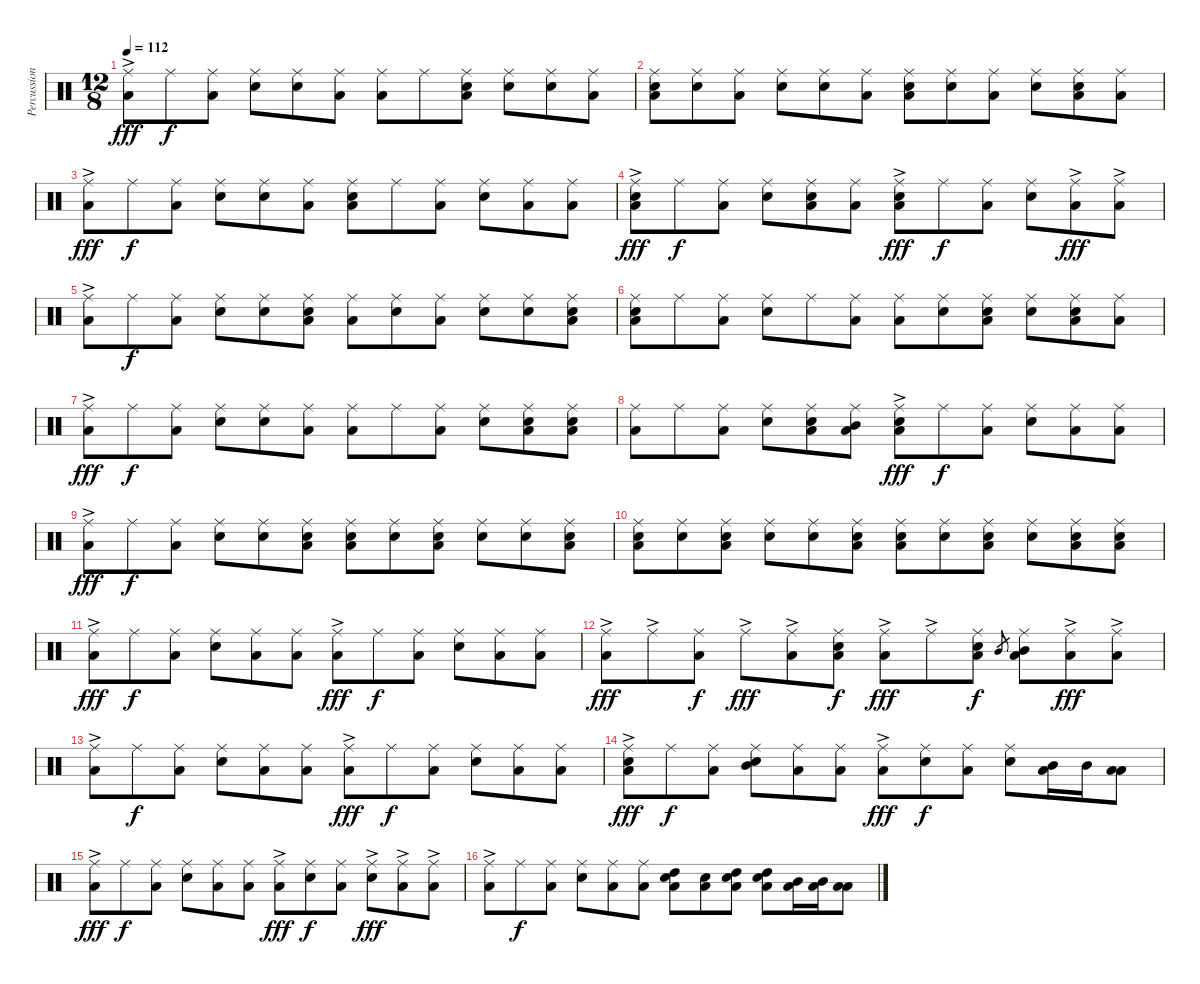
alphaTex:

\track ("Percussion" "Percussion") {instrument percussion}
\staff {score}
\articulation defaults
\ts (12 8)
\tempo 112
\clef neutral
\ks c
("Ride (middle)"{ac} "Low Floor Tom (hit)").8{dy fff} "Ride (middle)".8{dy f} ("Ride (middle)" "Low Floor Tom (hit)").8 ("Ride (middle)" "Snare (hit) 2").8 ("Ride (middle)" "Snare (hit) 2").8 ("Ride (middle)" "Low Floor Tom (hit)").8 ("Ride (middle)" "Low Floor Tom (hit)").8 "Ride (middle)".8 ("Ride (middle)" "Snare (hit) 2" "Low Floor Tom (hit)").8 ("Ride (middle)" "Snare (hit) 2").8 ("Ride (middle)" "Snare (hit) 2").8 ("Ride (middle)" "Low Floor Tom (hit)").8 |
("Ride (middle)" "Snare (hit) 2" "Low Floor Tom (hit)").8 ("Ride (middle)" "Snare (hit) 2").8 ("Ride (middle)" "Low Floor Tom (hit)").8 ("Ride (middle)" "Snare (hit) 2").8 ("Ride (middle)" "Snare (hit) 2").8 ("Ride (middle)" "Low Floor Tom (hit)").8 ("Ride (middle)" "Snare (hit) 2" "Low Floor Tom (hit)").8 ("Ride (middle)" "Snare (hit) 2").8 ("Ride (middle)" "Low Floor Tom (hit)").8 ("Ride (middle)" "Snare (hit) 2").8 ("Ride (middle)" "Snare (hit) 2" "Low Floor Tom (hit)").8 ("Ride (middle)" "Low Floor Tom (hit)").8 |
("Ride (middle)"{ac} "Low Floor Tom (hit)").8{dy fff} "Ride (middle)".8{dy f} ("Ride (middle)" "Low Floor Tom (hit)").8 ("Ride (middle)" "Snare (hit) 2").8 ("Ride (middle)" "Snare (hit) 2").8 ("Ride (middle)" "Low Floor Tom (hit)").8 ("Ride (middle)" "Snare (hit) 2" "Low Floor Tom (hit)").8 "Ride (middle)".8 ("Ride (middle)" "Low Floor Tom (hit)").8 ("Ride (middle)" "Snare (hit) 2").8 ("Ride (middle)" "Low Floor Tom (hit)").8 ("Ride (middle)" "Low Floor Tom (hit)").8 |
("Ride (middle)"{ac} "Snare (hit) 2" "Low Floor Tom (hit)").8{dy fff} "Ride (middle)".8{dy f} ("Ride (middle)" "Low Floor Tom (hit)").8 ("Ride (middle)" "Snare (hit) 2").8 ("Ride (middle)" "Snare (hit) 2" "Low Floor Tom (hit)").8 ("Ride (middle)" "Low Floor Tom (hit)").8 ("Ride (middle)"{ac} "Snare (hit) 2" "Low Floor Tom (hit)").8{dy fff} "Ride (middle)".8{dy f} ("Ride (middle)" "Low Floor Tom (hit)").8 ("Ride (middle)" "Snare (hit) 2").8 ("Ride (middle)"{ac} "Low Floor Tom (hit)").8{dy fff} ("Ride (middle)"{ac} "Low Floor Tom (hit)").8 |
("Ride (middle)"{ac} "Low Floor Tom (hit)").8 "Ride (middle)".8{dy f} ("Ride (middle)" "Low Floor Tom (hit)").8 ("Ride (middle)" "Snare (hit) 2").8 ("Ride (middle)" "Snare (hit) 2").8 ("Ride (middle)" "Snare (hit) 2" "Low Floor Tom (hit)").8 ("Ride (middle)" "Low Floor Tom (hit)").8 ("Ride (middle)" "Snare (hit) 2").8 ("Ride (middle)" "Low Floor Tom (hit)").8 ("Ride (middle)" "Snare (hit) 2").8 ("Ride (middle)" "Snare (hit) 2").8 ("Ride (middle)" "Snare (hit) 2" "Low Floor Tom (hit)").8 |
("Ride (middle)" "Snare (hit) 2" "Low Floor Tom (hit)").8 "Ride (middle)".8 ("Ride (middle)" "Low Floor Tom (hit)").8 ("Ride (middle)" "Snare (hit) 2").8 "Ride (middle)".8 ("Ride (middle)" "Low Floor Tom (hit)").8 ("Ride (middle)" "Low Floor Tom (hit)").8 ("Ride (middle)" "Snare (hit) 2").8 ("Ride (middle)" "Snare (hit) 2" "Low Floor Tom (hit)").8 ("Ride (middle)" "Snare (hit) 2").8 ("Ride (middle)" "Snare (hit) 2" "Low Floor Tom (hit)").8 ("Ride (middle)" "Low Floor Tom (hit)").8 |
("Ride (middle)"{ac} "Low Floor Tom (hit)").8{dy fff} "Ride (middle)".8{dy f} ("Ride (middle)" "Low Floor Tom (hit)").8 ("Ride (middle)" "Snare (hit) 2").8 ("Ride (middle)" "Snare (hit) 2").8 ("Ride (middle)" "Low Floor Tom (hit)").8 ("Ride (middle)" "Low Floor Tom (hit)").8 "Ride (middle)".8 ("Ride (middle)" "Low Floor Tom (hit)").8 ("Ride (middle)" "Snare (hit) 2").8 ("Ride (middle)" "Snare (hit) 2" "Low Floor Tom (hit)").8 ("Ride (middle)" "Snare (hit) 2" "Low Floor Tom (hit)").8 |
("Ride (middle)" "Low Floor Tom (hit)").8 "Ride (middle)".8 ("Ride (middle)" "Low Floor Tom (hit)").8 ("Ride (middle)" "Snare (hit) 2").8 ("Ride (middle)" "Snare (hit) 2" "Low Floor Tom (hit)").8 ("Ride (middle)" "Mid Tom (hit)" "Low Floor Tom (hit)").8 ("Ride (middle)"{ac} "Snare (hit) 2" "Low Floor Tom (hit)").8{dy fff} "Ride (middle)".8{dy f} ("Ride (middle)" "Low Floor Tom (hit)").8 ("Ride (middle)" "Snare (hit) 2").8 ("Ride (middle)" "Low Floor Tom (hit)").8 ("Ride (middle)" "Low Floor Tom (hit)").8 |
("Ride (middle)"{ac} "Low Floor Tom (hit)").8{dy fff} "Ride (middle)".8{dy f} ("Ride (middle)" "Low Floor Tom (hit)").8 ("Ride (middle)" "Snare (hit) 2").8 ("Ride (middle)" "Snare (hit) 2").8 ("Ride (middle)" "Snare (hit) 2" "Low Floor Tom (hit)").8 ("Ride (middle)" "Snare (hit) 2" "Low Floor Tom (hit)").8 ("Ride (middle)" "Snare (hit) 2").8 ("Ride (middle)" "Snare (hit) 2" "Low Floor Tom (hit)").8 ("Ride (middle)" "Snare (hit) 2").8 ("Ride (middle)" "Snare (hit) 2").8 ("Ride (middle)" "Snare (hit) 2" "Low Floor Tom (hit)").8 |
("Ride (middle)" "Snare (hit) 2" "Low Floor Tom (hit)").8 ("Ride (middle)" "Snare (hit) 2").8 ("Ride (middle)" "Snare (hit) 2" "Low Floor Tom (hit)").8 ("Ride (middle)" "Snare (hit) 2").8 ("Ride (middle)" "Snare (hit) 2").8 ("Ride (middle)" "Snare (hit) 2" "Low Floor Tom (hit)").8 ("Ride (middle)" "Snare (hit) 2" "Low Floor Tom (hit)").8 ("Ride (middle)" "Snare (hit) 2").8 ("Ride (middle)" "Snare (hit) 2" "Low Floor Tom (hit)").8 ("Ride (middle)" "Snare (hit) 2").8 ("Ride (middle)" "Snare (hit) 2" "Low Floor Tom (hit)").8 ("Ride (middle)" "Snare (hit) 2" "Low Floor Tom (hit)").8 |
("Ride (middle)"{ac} "Low Floor Tom (hit)").8{dy fff} "Ride (middle)".8{dy f} ("Ride (middle)" "Low Floor Tom (hit)").8 ("Ride (middle)" "Snare (hit) 2").8 ("Ride (middle)" "Low Floor Tom (hit)").8 ("Ride (middle)" "Low Floor Tom (hit)").8 ("Ride (middle)"{ac} "Low Floor Tom (hit)").8{dy fff} "Ride (middle)".8{dy f} ("Ride (middle)" "Low Floor Tom (hit)").8 ("Ride (middle)" "Snare (hit) 2").8 ("Ride (middle)" "Low Floor Tom (hit)").8 ("Ride (middle)" "Low Floor Tom (hit)").8 |
("Ride (middle)"{ac} "Low Floor Tom (hit)").8{dy fff} "Ride (middle)"{ac}.8 ("Ride (middle)" "Low Floor Tom (hit)").8{dy f} "Ride (middle)"{ac}.8{dy fff} ("Ride (middle)"{ac} "Low Floor Tom (hit)").8 ("Ride (middle)" "Snare (hit) 2" "Low Floor Tom (hit)").8{dy f} ("Ride (middle)"{ac} "Low Floor Tom (hit)").8{dy fff} "Ride (middle)"{ac}.8 ("Ride (middle)" "Snare (hit) 2" "Low Floor Tom (hit)").8{dy f} "Mid Tom (hit)".8{gr} ("Ride (middle)" "Mid Tom (hit)" "Low Floor Tom (hit)").8 ("Ride (middle)"{ac} "Low Floor Tom (hit)").8{dy fff} ("Ride (middle)"{ac} "Low Floor Tom (hit)").8 |
("Ride (middle)"{ac} "Low Floor Tom (hit)").8 "Ride (middle)".8{dy f} ("Ride (middle)" "Low Floor Tom (hit)").8 ("Ride (middle)" "Snare (hit) 2").8 ("Ride (middle)" "Low Floor Tom (hit)").8 ("Ride (middle)" "Low Floor Tom (hit)").8 ("Ride (middle)"{ac} "Low Floor Tom (hit)").8{dy fff} "Ride (middle)".8{dy f} ("Ride (middle)" "Low Floor Tom (hit)").8 ("Ride (middle)" "Snare (hit) 2").8 ("Ride (middle)" "Low Floor Tom (hit)").8 ("Ride (middle)" "Low Floor Tom (hit)").8 |
("Ride (middle)"{ac} "Snare (hit) 2" "Low Floor Tom (hit)").8{dy fff} "Ride (middle)".8{dy f} ("Ride (middle)" "Low Floor Tom (hit)").8 ("Ride (middle)" "Snare (hit) 2" "Mid Tom (hit)").8 ("Ride (middle)" "Low Floor Tom (hit)").8 ("Ride (middle)" "Low Floor Tom (hit)").8 ("Ride (middle)"{ac} "Low Floor Tom (hit)").8{dy fff} ("Ride (middle)" "Snare (hit) 2").8{dy f} ("Ride (middle)" "Low Floor Tom (hit)").8 ("Ride (middle)" "Snare (hit) 2").8 ("Mid Tom (hit)" "Low Floor Tom (hit)").16 "Mid Tom (hit)".16 ("Low Tom (hit)" "Low Floor Tom (hit)").8 |
("Ride (middle)"{ac} "Low Floor Tom (hit)").8{dy fff} "Ride (middle)".8{dy f} ("Ride (middle)" "Low Floor Tom (hit)").8 ("Ride (middle)" "Snare (hit) 2").8 ("Ride (middle)" "Low Floor Tom (hit)").8 ("Ride (middle)" "Low Floor Tom (hit)").8 ("Ride (middle)"{ac} "Low Floor Tom (hit)").8{dy fff} ("Ride (middle)" "Snare (hit) 2").8{dy f} ("Ride (middle)" "Low Floor Tom (hit)").8 ("Ride (middle)"{ac} "Snare (hit) 2").8{dy fff} ("Ride (middle)"{ac} "Low Floor Tom (hit)").8 ("Ride (middle)"{ac} "Low Floor Tom (hit)").8 |
("Ride (middle)"{ac} "Low Floor Tom (hit)").8 "Ride (middle)".8{dy f} ("Ride (middle)" "Low Floor Tom (hit)").8 ("Ride (middle)" "Snare (hit) 2").8 ("Ride (middle)" "Low Floor Tom (hit)").8 ("Ride (middle)" "Low Floor Tom (hit)").8 ("High Tom (hit)" "Snare (hit) 2" "Low Floor Tom (hit)").8 ("Snare (hit) 2" "Low Floor Tom (hit)").8 ("High Tom (hit)" "Snare (hit) 2" "Low Floor Tom (hit)").8 ("High Tom (hit)" "Snare (hit) 2" "Low Floor Tom (hit)").8 ("Mid Tom (hit)" "Low Floor Tom (hit)").16 ("Mid Tom (hit)" "Low Floor Tom (hit)").16 ("Low Tom (hit)" "Low Floor Tom (hit)").8
